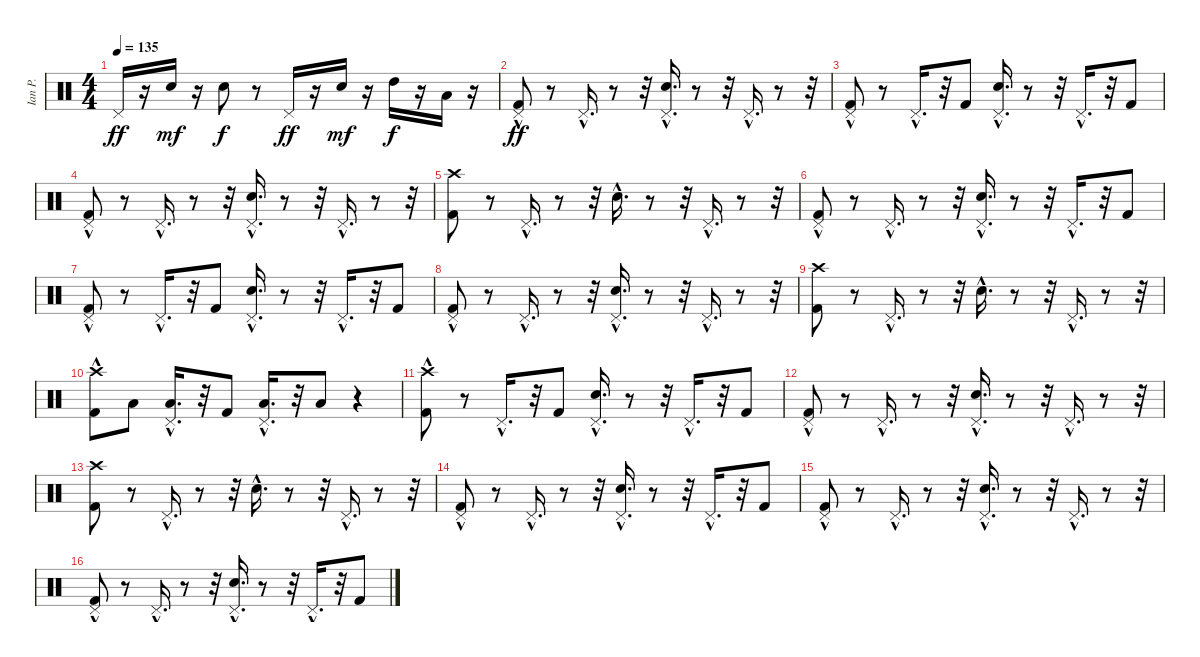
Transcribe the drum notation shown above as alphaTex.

\track ("Ian P." "Ian P.") {instrument percussion}
\staff {score}
\articulation defaults
\ts (4 4)
\tempo 135
\clef neutral
\ks c "Pedal Hi-Hat (hit)".16{dy ff}
r.16 "Snare (hit) 2".16{dy mf} r.16 "Snare (hit) 2".8{dy f} r.8 "Pedal Hi-Hat (hit)".16{dy ff} r.16 "Snare (hit) 2".16{dy mf} r.16 "High Tom (hit)".16{dy f} r.16 "Low Floor Tom (hit)".16 r.16 |
("Kick (hit) 2" "Pedal Hi-Hat (hit)"{hac}).8{dy ff} r.8 "Pedal Hi-Hat (hit)"{hac}.16{d} r.8 r.32 ("Snare (hit) 2"{hac} "Pedal Hi-Hat (hit)"{hac}).16{d} r.8 r.32 "Pedal Hi-Hat (hit)"{hac}.16{d} r.8 r.32 |
("Kick (hit) 2" "Pedal Hi-Hat (hit)"{hac}).8 r.8 "Pedal Hi-Hat (hit)"{hac}.16{d} r.32 "Kick (hit) 2".8 ("Snare (hit) 2"{hac} "Pedal Hi-Hat (hit)"{hac}).16{d} r.8 r.32 "Pedal Hi-Hat (hit)"{hac}.16{d} r.32 "Kick (hit) 2".8 |
("Kick (hit) 2" "Pedal Hi-Hat (hit)"{hac}).8 r.8 "Pedal Hi-Hat (hit)"{hac}.16{d} r.8 r.32 ("Snare (hit) 2"{hac} "Pedal Hi-Hat (hit)"{hac}).16{d} r.8 r.32 "Pedal Hi-Hat (hit)"{hac}.16{d} r.8 r.32 |
("Crash high (hit)" "Kick (hit) 2").8 r.8 "Pedal Hi-Hat (hit)"{hac}.16{d} r.8 r.32 "Snare (hit) 2"{hac}.16{d} r.8 r.32 "Pedal Hi-Hat (hit)"{hac}.16{d} r.8 r.32 |
("Kick (hit) 2" "Pedal Hi-Hat (hit)"{hac}).8 r.8 "Pedal Hi-Hat (hit)"{hac}.16{d} r.8 r.32 ("Snare (hit) 2"{hac} "Pedal Hi-Hat (hit)"{hac}).16{d} r.8 r.32 "Pedal Hi-Hat (hit)"{hac}.16{d} r.32 "Kick (hit) 2".8 |
("Kick (hit) 2" "Pedal Hi-Hat (hit)"{hac}).8 r.8 "Pedal Hi-Hat (hit)"{hac}.16{d} r.32 "Kick (hit) 2".8 ("Snare (hit) 2"{hac} "Pedal Hi-Hat (hit)"{hac}).16{d} r.8 r.32 "Pedal Hi-Hat (hit)"{hac}.16{d} r.32 "Kick (hit) 2".8 |
("Kick (hit) 2" "Pedal Hi-Hat (hit)"{hac}).8 r.8 "Pedal Hi-Hat (hit)"{hac}.16{d} r.8 r.32 ("Snare (hit) 2"{hac} "Pedal Hi-Hat (hit)"{hac}).16{d} r.8 r.32 "Pedal Hi-Hat (hit)"{hac}.16{d} r.8 r.32 |
("Crash high (hit)" "Kick (hit) 2").8 r.8 "Pedal Hi-Hat (hit)"{hac}.16{d} r.8 r.32 "Snare (hit) 2"{hac}.16{d} r.8 r.32 "Pedal Hi-Hat (hit)"{hac}.16{d} r.8 r.32 |
("Kick (hit) 2" "Crash high (hit)"{hac}).8 "Low Tom (hit)".8 ("Low Floor Tom (hit)"{hac} "Pedal Hi-Hat (hit)"{hac}).16{d} r.32 "Kick (hit) 2".8 ("Low Tom (hit)"{hac} "Pedal Hi-Hat (hit)"{hac}).16{d} r.32 "Low Floor Tom (hit)".8 r.4 |
("Kick (hit) 2" "Crash high (hit)"{hac}).8 r.8 "Pedal Hi-Hat (hit)"{hac}.16{d} r.32 "Kick (hit) 2".8 ("Snare (hit) 2"{hac} "Pedal Hi-Hat (hit)"{hac}).16{d} r.8 r.32 "Pedal Hi-Hat (hit)"{hac}.16{d} r.32 "Kick (hit) 2".8 |
("Kick (hit) 2" "Pedal Hi-Hat (hit)"{hac}).8 r.8 "Pedal Hi-Hat (hit)"{hac}.16{d} r.8 r.32 ("Snare (hit) 2"{hac} "Pedal Hi-Hat (hit)"{hac}).16{d} r.8 r.32 "Pedal Hi-Hat (hit)"{hac}.16{d} r.8 r.32 |
("Crash high (hit)" "Kick (hit) 2").8 r.8 "Pedal Hi-Hat (hit)"{hac}.16{d} r.8 r.32 "Snare (hit) 2"{hac}.16{d} r.8 r.32 "Pedal Hi-Hat (hit)"{hac}.16{d} r.8 r.32 |
("Kick (hit) 2" "Pedal Hi-Hat (hit)"{hac}).8 r.8 "Pedal Hi-Hat (hit)"{hac}.16{d} r.8 r.32 ("Snare (hit) 2"{hac} "Pedal Hi-Hat (hit)"{hac}).16{d} r.8 r.32 "Pedal Hi-Hat (hit)"{hac}.16{d} r.32 "Kick (hit) 2".8 |
("Kick (hit) 2" "Pedal Hi-Hat (hit)"{hac}).8 r.8 "Pedal Hi-Hat (hit)"{hac}.16{d} r.8 r.32 ("Snare (hit) 2"{hac} "Pedal Hi-Hat (hit)"{hac}).16{d} r.8 r.32 "Pedal Hi-Hat (hit)"{hac}.16{d} r.8 r.32 |
("Kick (hit) 2" "Pedal Hi-Hat (hit)"{hac}).8 r.8 "Pedal Hi-Hat (hit)"{hac}.16{d} r.8 r.32 ("Snare (hit) 2"{hac} "Pedal Hi-Hat (hit)"{hac}).16{d} r.8 r.32 "Pedal Hi-Hat (hit)"{hac}.16{d} r.32 "Kick (hit) 2".8
